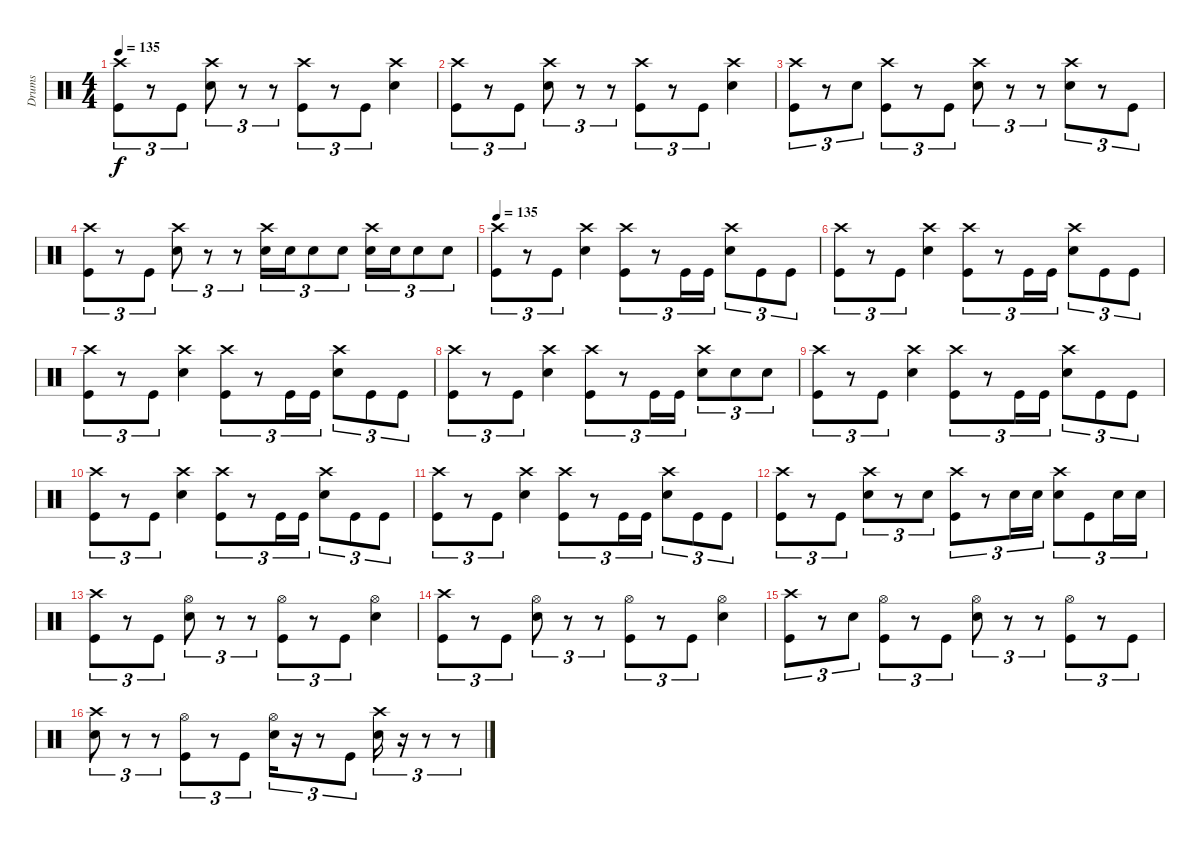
\track ("Drums" "Drums") {instrument percussion}
\staff {score}
\articulation defaults
\ts (4 4)
\tempo 135
\clef neutral
\ks c
("Kick (hit)" "Crash high (hit)").8{tu (3 2) dy f} r.8{tu (3 2)} "Kick (hit)".8{tu (3 2)} ("Snare (hit) 2" "Crash high (hit)").8{tu (3 2)} r.8{tu (3 2)} r.8{tu (3 2)} ("Kick (hit)" "Crash high (hit)").8{tu (3 2)} r.8{tu (3 2)} "Kick (hit)".8{tu (3 2)} ("Snare (hit) 2" "Crash high (hit)").4 |
("Kick (hit)" "Crash high (hit)").8{tu (3 2)} r.8{tu (3 2)} "Kick (hit)".8{tu (3 2)} ("Snare (hit) 2" "Crash high (hit)").8{tu (3 2)} r.8{tu (3 2)} r.8{tu (3 2)} ("Kick (hit)" "Crash high (hit)").8{tu (3 2)} r.8{tu (3 2)} "Kick (hit)".8{tu (3 2)} ("Snare (hit) 2" "Crash high (hit)").4 |
("Kick (hit)" "Crash high (hit)").8{tu (3 2)} r.8{tu (3 2)} "Snare (hit) 2".8{tu (3 2)} ("Kick (hit)" "Crash high (hit)").8{tu (3 2)} r.8{tu (3 2)} "Kick (hit)".8{tu (3 2)} ("Snare (hit) 2" "Crash high (hit)").8{tu (3 2)} r.8{tu (3 2)} r.8{tu (3 2)} ("Snare (hit) 2" "Crash high (hit)").8{tu (3 2)} r.8{tu (3 2)} "Kick (hit)".8{tu (3 2)} |
("Kick (hit)" "Crash high (hit)").8{tu (3 2)} r.8{tu (3 2)} "Kick (hit)".8{tu (3 2)} ("Snare (hit) 2" "Crash high (hit)").8{tu (3 2)} r.8{tu (3 2)} r.8{tu (3 2)} ("Snare (hit) 2" "Crash high (hit)").16{tu (3 2)} "Snare (hit) 2".16{tu (3 2)} "Snare (hit) 2".8{tu (3 2)} "Snare (hit) 2".8{tu (3 2)} ("Snare (hit) 2" "Crash high (hit)").16{tu (3 2)} "Snare (hit) 2".16{tu (3 2)} "Snare (hit) 2".8{tu (3 2)} "Snare (hit) 2".8{tu (3 2)} |
\tempo 135
("Kick (hit)" "Crash high (hit)").8{tu (3 2)} r.8{tu (3 2)} "Kick (hit)".8{tu (3 2)} ("Snare (hit) 2" "Crash high (hit)").4 ("Kick (hit)" "Crash high (hit)").8{tu (3 2)} r.8{tu (3 2)} "Kick (hit)".16{tu (3 2)} "Kick (hit)".16{tu (3 2)} ("Snare (hit) 2" "Crash high (hit)").8{tu (3 2)} "Kick (hit)".8{tu (3 2)} "Kick (hit)".8{tu (3 2)} |
("Kick (hit)" "Crash high (hit)").8{tu (3 2)} r.8{tu (3 2)} "Kick (hit)".8{tu (3 2)} ("Snare (hit) 2" "Crash high (hit)").4 ("Kick (hit)" "Crash high (hit)").8{tu (3 2)} r.8{tu (3 2)} "Kick (hit)".16{tu (3 2)} "Kick (hit)".16{tu (3 2)} ("Snare (hit) 2" "Crash high (hit)").8{tu (3 2)} "Kick (hit)".8{tu (3 2)} "Kick (hit)".8{tu (3 2)} |
("Kick (hit)" "Crash high (hit)").8{tu (3 2)} r.8{tu (3 2)} "Kick (hit)".8{tu (3 2)} ("Snare (hit) 2" "Crash high (hit)").4 ("Kick (hit)" "Crash high (hit)").8{tu (3 2)} r.8{tu (3 2)} "Kick (hit)".16{tu (3 2)} "Kick (hit)".16{tu (3 2)} ("Snare (hit) 2" "Crash high (hit)").8{tu (3 2)} "Kick (hit)".8{tu (3 2)} "Kick (hit)".8{tu (3 2)} |
("Kick (hit)" "Crash high (hit)").8{tu (3 2)} r.8{tu (3 2)} "Kick (hit)".8{tu (3 2)} ("Snare (hit) 2" "Crash high (hit)").4 ("Kick (hit)" "Crash high (hit)").8{tu (3 2)} r.8{tu (3 2)} "Kick (hit)".16{tu (3 2)} "Kick (hit)".16{tu (3 2)} ("Snare (hit) 2" "Crash high (hit)").8{tu (3 2)} "Snare (hit) 2".8{tu (3 2)} "Snare (hit) 2".8{tu (3 2)} |
("Kick (hit)" "Crash high (hit)").8{tu (3 2)} r.8{tu (3 2)} "Kick (hit)".8{tu (3 2)} ("Snare (hit) 2" "Crash high (hit)").4 ("Kick (hit)" "Crash high (hit)").8{tu (3 2)} r.8{tu (3 2)} "Kick (hit)".16{tu (3 2)} "Kick (hit)".16{tu (3 2)} ("Snare (hit) 2" "Crash high (hit)").8{tu (3 2)} "Kick (hit)".8{tu (3 2)} "Kick (hit)".8{tu (3 2)} |
("Kick (hit)" "Crash high (hit)").8{tu (3 2)} r.8{tu (3 2)} "Kick (hit)".8{tu (3 2)} ("Snare (hit) 2" "Crash high (hit)").4 ("Kick (hit)" "Crash high (hit)").8{tu (3 2)} r.8{tu (3 2)} "Kick (hit)".16{tu (3 2)} "Kick (hit)".16{tu (3 2)} ("Snare (hit) 2" "Crash high (hit)").8{tu (3 2)} "Kick (hit)".8{tu (3 2)} "Kick (hit)".8{tu (3 2)} |
("Kick (hit)" "Crash high (hit)").8{tu (3 2)} r.8{tu (3 2)} "Kick (hit)".8{tu (3 2)} ("Snare (hit) 2" "Crash high (hit)").4 ("Kick (hit)" "Crash high (hit)").8{tu (3 2)} r.8{tu (3 2)} "Kick (hit)".16{tu (3 2)} "Kick (hit)".16{tu (3 2)} ("Snare (hit) 2" "Crash high (hit)").8{tu (3 2)} "Kick (hit)".8{tu (3 2)} "Kick (hit)".8{tu (3 2)} |
("Kick (hit)" "Crash high (hit)").8{tu (3 2)} r.8{tu (3 2)} "Kick (hit)".8{tu (3 2)} ("Snare (hit) 2" "Crash high (hit)").8{tu (3 2)} r.8{tu (3 2)} "Snare (hit) 2".8{tu (3 2)} ("Kick (hit)" "Crash high (hit)").8{tu (3 2)} r.8{tu (3 2)} "Snare (hit) 2".16{tu (3 2)} "Snare (hit) 2".16{tu (3 2)} ("Snare (hit) 2" "Crash high (hit)").8{tu (3 2)} "Kick (hit)".8{tu (3 2)} "Snare (hit) 2".16{tu (3 2)} "Snare (hit) 2".16{tu (3 2)} |
("Kick (hit)" "Crash high (hit)").8{tu (3 2)} r.8{tu (3 2)} "Kick (hit)".8{tu (3 2)} ("Snare (hit) 2" "Hi-Hat (open)").8{tu (3 2)} r.8{tu (3 2)} r.8{tu (3 2)} ("Kick (hit)" "Hi-Hat (open)").8{tu (3 2)} r.8{tu (3 2)} "Kick (hit)".8{tu (3 2)} ("Snare (hit) 2" "Hi-Hat (open)").4 |
("Kick (hit)" "Crash high (hit)").8{tu (3 2)} r.8{tu (3 2)} "Kick (hit)".8{tu (3 2)} ("Snare (hit) 2" "Hi-Hat (open)").8{tu (3 2)} r.8{tu (3 2)} r.8{tu (3 2)} ("Kick (hit)" "Hi-Hat (open)").8{tu (3 2)} r.8{tu (3 2)} "Kick (hit)".8{tu (3 2)} ("Snare (hit) 2" "Hi-Hat (open)").4 |
("Kick (hit)" "Crash high (hit)").8{tu (3 2)} r.8{tu (3 2)} "Snare (hit) 2".8{tu (3 2)} ("Kick (hit)" "Hi-Hat (open)").8{tu (3 2)} r.8{tu (3 2)} "Kick (hit)".8{tu (3 2)} ("Snare (hit) 2" "Hi-Hat (open)").8{tu (3 2)} r.8{tu (3 2)} r.8{tu (3 2)} ("Kick (hit)" "Hi-Hat (open)").8{tu (3 2)} r.8{tu (3 2)} "Kick (hit)".8{tu (3 2)} |
("Snare (hit) 2" "Crash high (hit)").8{tu (3 2)} r.8{tu (3 2)} r.8{tu (3 2)} ("Kick (hit)" "Hi-Hat (open)").8{tu (3 2)} r.8{tu (3 2)} "Kick (hit)".8{tu (3 2)} ("Snare (hit) 2" "Hi-Hat (open)").16{tu (3 2)} r.16{tu (3 2)} r.8{tu (3 2)} "Kick (hit)".8{tu (3 2)} ("Snare (hit) 2" "Crash high (hit)").16{tu (3 2)} r.16{tu (3 2)} r.8{tu (3 2)} r.8{tu (3 2)}
